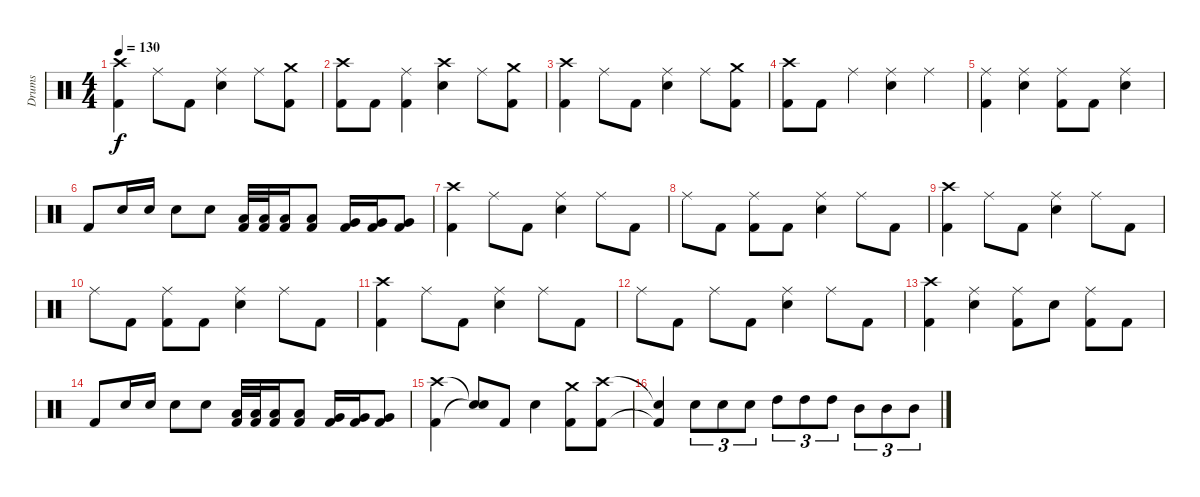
\track ("Drums" "Drums") {instrument percussion}
\staff {score}
\articulation defaults
\ts (4 4)
\tempo 130
\clef neutral
\ks c
("Crash high (hit)" "Kick (hit) 2").4{dy f} "Ride (middle)".8 "Kick (hit) 2".8 ("Ride (middle)" "Electric Snare (hit)").4 "Ride (middle)".8 ("Crash medium (hit)" "Kick (hit) 2").8 |
("Crash high (hit)" "Kick (hit) 2").8 "Kick (hit) 2".8 ("Ride (middle)" "Kick (hit) 2").4 ("Crash high (hit)" "Electric Snare (hit)").4 "Ride (middle)".8 ("Crash medium (hit)" "Kick (hit) 2").8 |
("Crash high (hit)" "Kick (hit) 2").4 "Ride (middle)".8 "Kick (hit) 2".8 ("Ride (middle)" "Electric Snare (hit)").4 "Ride (middle)".8 ("Crash medium (hit)" "Kick (hit) 2").8 |
("Crash high (hit)" "Kick (hit) 2").8 "Kick (hit) 2".8 "Ride (middle)".4 ("Ride (middle)" "Electric Snare (hit)").4 "Ride (middle)".4 |
("Ride (middle)" "Kick (hit) 2").4 ("Ride (middle)" "Electric Snare (hit)").4 ("Ride (middle)" "Kick (hit) 2").8 "Kick (hit) 2".8 ("Ride (middle)" "Electric Snare (hit)").4 |
"Kick (hit) 2".8 "Electric Snare (hit)".16 "Electric Snare (hit)".16 "Electric Snare (hit)".8 "Electric Snare (hit)".8 ("Low Tom (hit)" "Kick (hit) 2").32 ("Low Tom (hit)" "Kick (hit) 2").32 ("Low Tom (hit)" "Kick (hit) 2").16 ("Low Tom (hit)" "Kick (hit) 2").8 ("Very Low Tom (hit)" "Kick (hit) 2").16 ("Very Low Tom (hit)" "Kick (hit) 2").16 ("Very Low Tom (hit)" "Kick (hit) 2").8 |
("Crash high (hit)" "Kick (hit) 2").4 "Ride (middle)".8 "Kick (hit) 2".8 ("Ride (middle)" "Electric Snare (hit)").4 "Ride (middle)".8 "Kick (hit) 2".8 |
"Ride (middle)".8 "Kick (hit) 2".8 ("Ride (middle)" "Kick (hit) 2").8 "Kick (hit) 2".8 ("Ride (middle)" "Electric Snare (hit)").4 "Ride (middle)".8 "Kick (hit) 2".8 |
("Crash high (hit)" "Kick (hit) 2").4 "Ride (middle)".8 "Kick (hit) 2".8 ("Ride (middle)" "Electric Snare (hit)").4 "Ride (middle)".8 "Kick (hit) 2".8 |
"Ride (middle)".8 "Kick (hit) 2".8 ("Ride (middle)" "Kick (hit) 2").8 "Kick (hit) 2".8 ("Ride (middle)" "Electric Snare (hit)").4 "Ride (middle)".8 "Kick (hit) 2".8 |
("Crash high (hit)" "Kick (hit) 2").4 "Ride (middle)".8 "Kick (hit) 2".8 ("Ride (middle)" "Electric Snare (hit)").4 "Ride (middle)".8 "Kick (hit) 2".8 |
"Ride (middle)".8 "Kick (hit) 2".8 "Ride (middle)".8 "Kick (hit) 2".8 ("Ride (middle)" "Electric Snare (hit)").4 "Ride (middle)".8 "Kick (hit) 2".8 |
("Crash high (hit)" "Kick (hit) 2").4 ("Ride (middle)" "Electric Snare (hit)").4 ("Ride (middle)" "Kick (hit) 2").8 "Electric Snare (hit)".8 ("Ride (middle)" "Kick (hit) 2").8 "Kick (hit) 2".8 |
"Kick (hit) 2".8 "Electric Snare (hit)".16 "Electric Snare (hit)".16 "Electric Snare (hit)".8 "Electric Snare (hit)".8 ("Low Tom (hit)" "Kick (hit) 2").32 ("Low Tom (hit)" "Kick (hit) 2").32 ("Low Tom (hit)" "Kick (hit) 2").16 ("Low Tom (hit)" "Kick (hit) 2").8 ("Very Low Tom (hit)" "Kick (hit) 2").16 ("Very Low Tom (hit)" "Kick (hit) 2").16 ("Very Low Tom (hit)" "Kick (hit) 2").8 |
("Crash high (hit)" "Kick (hit) 2").4 ("Snare (hit)"{t} "Snare (hit)"{t}).8 "Kick (hit) 2".8 "Electric Snare (hit)".4 ("Crash medium (hit)" "Kick (hit) 2").8 ("Crash high (hit)" "Kick (hit) 2").8 |
("Snare (hit)"{t} "Kick (hit) 2"{t}).4 "Electric Snare (hit)".8{tu (3 2)} "Electric Snare (hit)".8{tu (3 2)} "Electric Snare (hit)".8{tu (3 2)} "High Tom (hit)".8{tu (3 2)} "High Tom (hit)".8{tu (3 2)} "High Tom (hit)".8{tu (3 2)} "Mid Tom (hit)".8{tu (3 2)} "Mid Tom (hit)".8{tu (3 2)} "Mid Tom (hit)".8{tu (3 2)}
